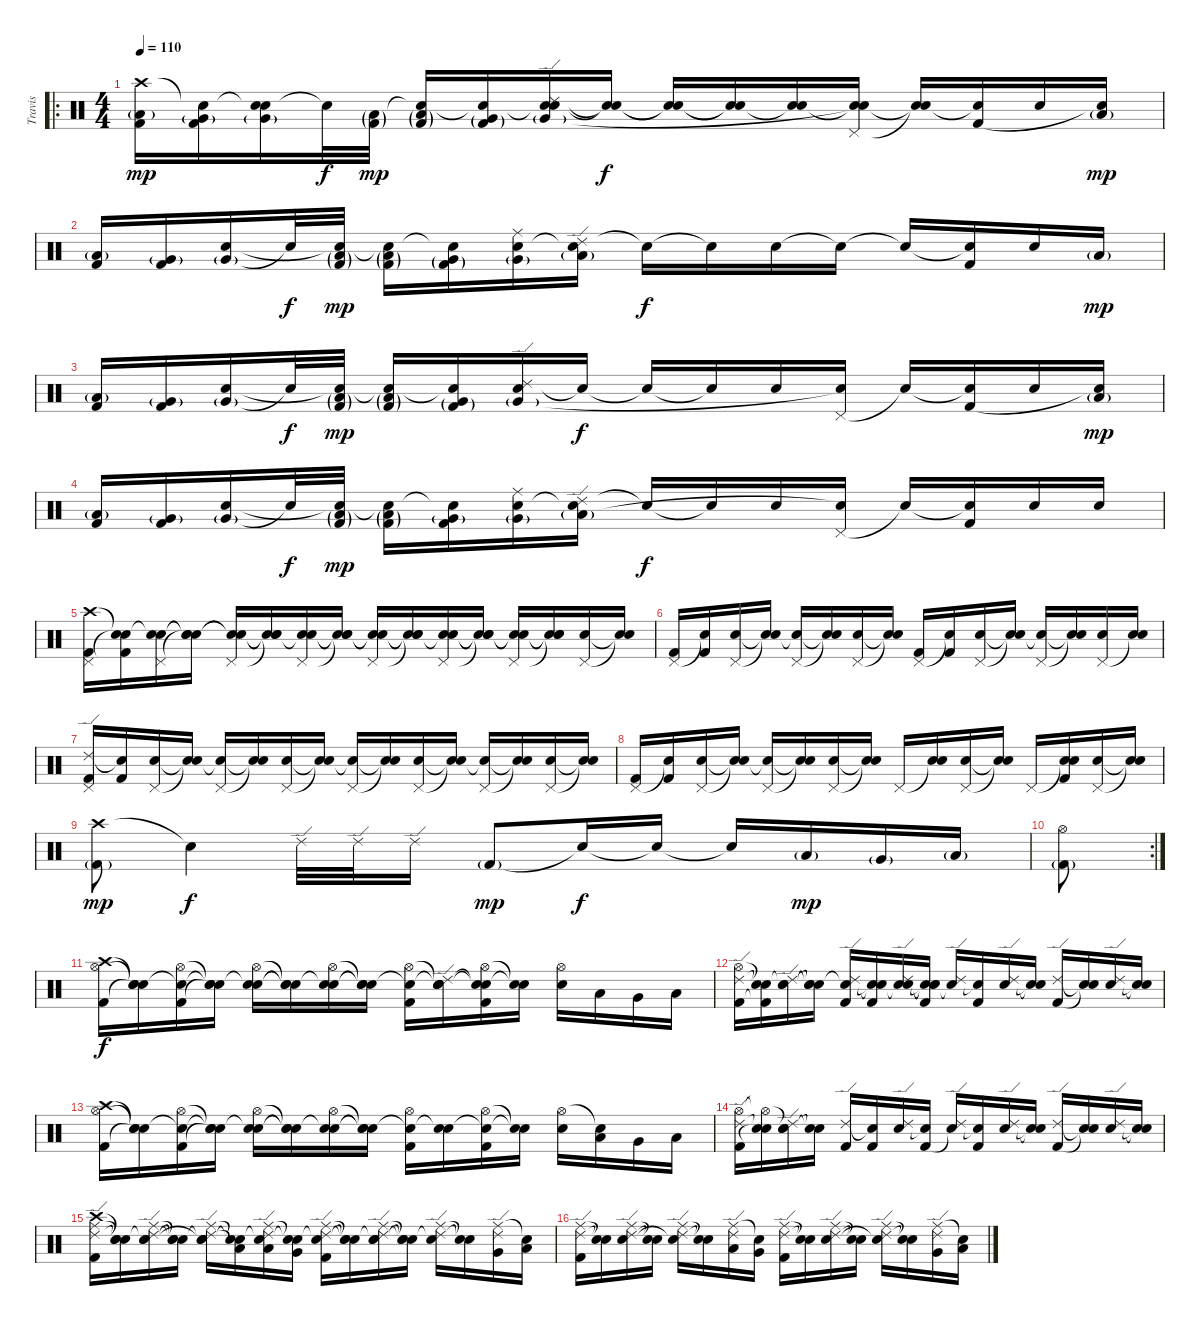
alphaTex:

\track ("Travis" "Travis") {instrument percussion}
\staff {score}
\articulation defaults
\ro
\ts (4 4)
\tempo 110
\clef neutral
\ks c
("Crash high (hit)" "Low Tom (hit)"{g} "Kick (hit) 2").16{dy mp} ("Snare (hit)"{t} "Very Low Tom (hit)"{g} "Kick (hit) 2").16 ("Snare (hit)"{t} "Very Low Tom (hit)"{g} "Electric Snare (hit)").16 "Snare (hit)"{t}.32{dy f} ("Low Tom (hit)"{g} "Kick (hit) 2"{g}).32{dy mp} ("Snare (hit)"{t} "Low Tom (hit)"{g} "Kick (hit) 2"{g}).16 ("Snare (hit)"{t} "Very Low Tom (hit)"{g} "Kick (hit) 2"{g}).16 ("Snare (hit)"{t} "Ride (edge) 2" "Very Low Tom (hit)"{g} "Electric Snare (hit)").16 ("Snare (hit)"{t} "Snare (hit)"{t}).16{dy f} ("Snare (hit)"{t} "Electric Snare (hit)"{t}).16 ("Snare (hit)"{t} "Snare (hit)"{t}).16 ("Snare (hit)"{t} "Electric Snare (hit)").16 ("Snare (hit)"{t} "Pedal Hi-Hat (hit)" "Snare (hit)"{t}).16 ("Snare (hit)"{t} "Snare (hit)"{t}).16 ("Snare (hit)"{t} "Kick (hit) 2").16 "Electric Snare (hit)".16 ("Low Tom (hit)"{g} "Snare (hit)"{t}).16{dy mp} |
("Low Tom (hit)"{g} "Kick (hit) 2").16 ("Very Low Tom (hit)"{g} "Kick (hit) 2").16 ("Very Low Tom (hit)"{g} "Electric Snare (hit)").16 "Snare (hit)"{t}.32{dy f} ("Low Tom (hit)"{g} "Snare (hit)"{t} "Kick (hit) 2"{g}).32{dy mp} ("Low Tom (hit)"{g} "Snare (hit)"{t} "Kick (hit) 2"{g}).16 ("Very Low Tom (hit)"{g} "Snare (hit)"{t} "Kick (hit) 2"{g}).16 ("Ride (middle)" "Very Low Tom (hit)"{g} "Electric Snare (hit)").16 ("Ride (edge) 2" "Low Floor Tom (hit)"{g} "Snare (hit)"{t}).16 "Snare (hit)"{t}.16{dy f} "Snare (hit)"{t}.16 "Electric Snare (hit)".16 "Snare (hit)"{t}.16 "Snare (hit)"{t}.16 ("Snare (hit)"{t} "Kick (hit) 2").16 "Electric Snare (hit)".16 "Low Tom (hit)"{g}.16{dy mp} |
("Low Tom (hit)"{g} "Kick (hit) 2").16 ("Very Low Tom (hit)"{g} "Kick (hit) 2").16 ("Very Low Tom (hit)"{g} "Electric Snare (hit)").16 "Snare (hit)"{t}.32{dy f} ("Low Tom (hit)"{g} "Snare (hit)"{t} "Kick (hit) 2"{g}).32{dy mp} ("Low Tom (hit)"{g} "Snare (hit)"{t} "Kick (hit) 2"{g}).16 ("Very Low Tom (hit)"{g} "Snare (hit)"{t} "Kick (hit) 2"{g}).16 ("Ride (edge) 2" "Very Low Tom (hit)"{g} "Electric Snare (hit)").16 "Snare (hit)"{t}.16{dy f} "Snare (hit)"{t}.16 "Snare (hit)"{t}.16 "Electric Snare (hit)".16 ("Pedal Hi-Hat (hit)" "Snare (hit)"{t}).16 "Snare (hit)"{t}.16 ("Snare (hit)"{t} "Kick (hit) 2").16 "Electric Snare (hit)".16 ("Low Tom (hit)"{g} "Snare (hit)"{t}).16{dy mp} |
("Low Tom (hit)"{g} "Kick (hit) 2").16 ("Very Low Tom (hit)"{g} "Kick (hit) 2").16 ("Very Low Tom (hit)"{g} "Electric Snare (hit)").16 "Snare (hit)"{t}.32{dy f} ("Low Tom (hit)"{g} "Snare (hit)"{t} "Kick (hit) 2"{g}).32{dy mp} ("Low Tom (hit)"{g} "Snare (hit)"{t} "Kick (hit) 2"{g}).16 ("Very Low Tom (hit)"{g} "Snare (hit)"{t} "Kick (hit) 2").16 ("Ride (middle)" "Very Low Tom (hit)"{g} "Electric Snare (hit)").16 ("Ride (edge) 2" "Low Floor Tom (hit)"{g} "Snare (hit)"{t}).16 "Electric Snare (hit)"{t}.16{dy f} "Snare (hit)"{t}.16 "Electric Snare (hit)".16 ("Pedal Hi-Hat (hit)" "Electric Snare (hit)"{t}).16 "Snare (hit)"{t}.16 ("Snare (hit)"{t} "Kick (hit) 2").16 "Electric Snare (hit)".16 "Electric Snare (hit)".16 |
("Crash high (hit)" "Pedal Hi-Hat (hit)" "Kick (hit) 2").16 ("Snare (hit)"{t} "Snare (hit)"{t} "Kick (hit) 2").16 ("Snare (hit)"{t} "Pedal Hi-Hat (hit)" "Electric Snare (hit)").16 ("Snare (hit)"{t} "Snare (hit)"{t} "Snare (hit)"{t}).16 ("Snare (hit)"{t} "Pedal Hi-Hat (hit)" "Snare (hit)"{t}).16 ("Snare (hit)"{t} "Snare (hit)"{t} "Snare (hit)"{t}).16 ("Snare (hit)"{t} "Pedal Hi-Hat (hit)" "Electric Snare (hit)").16 ("Snare (hit)"{t} "Snare (hit)"{t} "Snare (hit)"{t}).16 ("Snare (hit)"{t} "Pedal Hi-Hat (hit)" "Snare (hit)"{t}).16 ("Snare (hit)"{t} "Snare (hit)"{t} "Snare (hit)"{t}).16 ("Snare (hit)"{t} "Pedal Hi-Hat (hit)" "Electric Snare (hit)").16 ("Snare (hit)"{t} "Snare (hit)"{t} "Snare (hit)"{t}).16 ("Snare (hit)"{t} "Pedal Hi-Hat (hit)" "Snare (hit)"{t}).16 ("Snare (hit)"{t} "Snare (hit)"{t} "Snare (hit)"{t}).16 ("Pedal Hi-Hat (hit)" "Electric Snare (hit)").16 ("Snare (hit)"{t} "Snare (hit)"{t}).16 |
("Pedal Hi-Hat (hit)" "Kick (hit) 2").16 ("Snare (hit)"{t} "Kick (hit) 2").16 ("Pedal Hi-Hat (hit)" "Electric Snare (hit)").16 ("Snare (hit)"{t} "Snare (hit)"{t}).16 ("Pedal Hi-Hat (hit)" "Snare (hit)"{t}).16 ("Snare (hit)"{t} "Snare (hit)"{t}).16 ("Pedal Hi-Hat (hit)" "Electric Snare (hit)").16 ("Snare (hit)"{t} "Snare (hit)"{t}).16 ("Pedal Hi-Hat (hit)" "Kick (hit) 2").16 ("Snare (hit)"{t} "Kick (hit) 2").16 ("Pedal Hi-Hat (hit)" "Electric Snare (hit)").16 ("Snare (hit)"{t} "Snare (hit)"{t}).16 ("Pedal Hi-Hat (hit)" "Snare (hit)"{t}).16 ("Snare (hit)"{t} "Snare (hit)"{t}).16 ("Pedal Hi-Hat (hit)" "Electric Snare (hit)").16 ("Snare (hit)"{t} "Electric Snare (hit)").16 |
("Ride (edge) 2" "Pedal Hi-Hat (hit)" "Kick (hit) 2").16 ("Snare (hit)"{t} "Kick (hit) 2").16 ("Pedal Hi-Hat (hit)" "Electric Snare (hit)").16 ("Snare (hit)"{t} "Snare (hit)"{t}).16 ("Pedal Hi-Hat (hit)" "Snare (hit)"{t}).16 ("Snare (hit)"{t} "Snare (hit)"{t}).16 ("Pedal Hi-Hat (hit)" "Electric Snare (hit)").16 ("Snare (hit)"{t} "Snare (hit)"{t}).16 ("Pedal Hi-Hat (hit)" "Snare (hit)"{t}).16 ("Snare (hit)"{t} "Snare (hit)"{t}).16 ("Pedal Hi-Hat (hit)" "Electric Snare (hit)").16 ("Snare (hit)"{t} "Snare (hit)"{t}).16 ("Pedal Hi-Hat (hit)" "Snare (hit)"{t}).16 ("Snare (hit)"{t} "Snare (hit)"{t}).16 ("Pedal Hi-Hat (hit)" "Electric Snare (hit)").16 ("Snare (hit)"{t} "Snare (hit)"{t}).16 |
("Pedal Hi-Hat (hit)" "Kick (hit) 2").16 ("Snare (hit)"{t} "Kick (hit) 2").16 ("Pedal Hi-Hat (hit)" "Electric Snare (hit)").16 ("Snare (hit)"{t} "Snare (hit)"{t}).16 ("Pedal Hi-Hat (hit)" "Snare (hit)"{t}).16 ("Snare (hit)"{t} "Snare (hit)"{t}).16 ("Pedal Hi-Hat (hit)" "Electric Snare (hit)").16 ("Snare (hit)"{t} "Electric Snare (hit)"{t}).16 "Pedal Hi-Hat (hit)".16 ("Snare (hit)"{t} "Electric Snare (hit)").16 ("Pedal Hi-Hat (hit)" "Electric Snare (hit)").16 ("Snare (hit)"{t} "Electric Snare (hit)"{t}).16 "Pedal Hi-Hat (hit)".16 ("Snare (hit)"{t} "Electric Snare (hit)" "Kick (hit) 2").16 ("Pedal Hi-Hat (hit)" "Electric Snare (hit)").16 ("Snare (hit)"{t} "Electric Snare (hit)"{t}).16 |
("Crash high (hit)" "Kick (hit) 2"{g}).8{dy mp} "Snare (hit)"{t}.4{dy f} "Ride (edge) 2".32 "Ride (edge) 2".32 "Ride (edge) 2".16 "Kick (hit) 2"{g}.8{dy mp} "Snare (hit)"{t}.16{dy f} "Snare (hit)"{t}.16 "Snare (hit)"{t}.16 "Low Tom (hit)"{g}.16{dy mp} "Very Low Tom (hit)"{g}.16 "Low Floor Tom (hit)"{g}.16 |
\rc 2
("Hi-Hat (open)" "Kick (hit) 2"{g}).8 |
("Crash high (hit)" "Hi-Hat (open)" "Kick (hit) 2").16{dy f} ("Snare (hit)"{t} "Snare (hit)"{t} "Snare (hit)"{t}).16 ("Snare (hit)"{t} "Hi-Hat (open)" "Kick (hit) 2").16 ("Snare (hit)"{t} "Snare (hit)"{t} "Snare (hit)"{t}).16 ("Snare (hit)"{t} "Hi-Hat (open)" "Electric Snare (hit)").16 ("Snare (hit)"{t} "Snare (hit)"{t} "Snare (hit)"{t}).16 ("Snare (hit)"{t} "Hi-Hat (open)" "Electric Snare (hit)").16 ("Snare (hit)"{t} "Snare (hit)"{t} "Snare (hit)"{t}).16 ("Snare (hit)"{t} "Hi-Hat (open)" "Kick (hit) 2").16 ("Snare (hit)"{t} "Snare (hit)"{t} "Ride (edge) 2" "Electric Snare (hit)").16 ("Snare (hit)"{t} "Hi-Hat (open)" "Snare (hit)"{t} "Kick (hit) 2").16 ("Snare (hit)"{t} "Snare (hit)"{t}).16 ("Hi-Hat (open)" "Electric Snare (hit)").16 "Low Tom (hit)".16 "Very Low Tom (hit)".16 "Low Floor Tom (hit)".16 |
("Hi-Hat (open)" "Ride (edge) 2" "Kick (hit) 2").16 ("Snare (hit)"{t} "Snare (hit)"{t} "Kick (hit) 2"{t}).16 ("Snare (hit)"{t} "Ride (edge) 2" "Electric Snare (hit)").16 ("Snare (hit)"{t} "Snare (hit)"{t} "Snare (hit)"{t}).16 ("Snare (hit)"{t} "Ride (edge) 2" "Kick (hit) 2").16 ("Snare (hit)"{t} "Snare (hit)"{t} "Kick (hit) 2").16 ("Snare (hit)"{t} "Ride (edge) 2" "Electric Snare (hit)").16 ("Snare (hit)"{t} "Snare (hit)"{t} "Snare (hit)"{t} "Kick (hit) 2").16 ("Ride (edge) 2" "Snare (hit)"{t}).16 ("Snare (hit)"{t} "Kick (hit) 2").16 ("Ride (edge) 2" "Electric Snare (hit)").16 ("Snare (hit)"{t} "Snare (hit)"{t}).16 ("Ride (edge) 2" "Kick (hit) 2").16 ("Snare (hit)"{t} "Snare (hit)"{t}).16 ("Ride (edge) 2" "Electric Snare (hit)").16 ("Snare (hit)"{t} "Snare (hit)"{t}).16 |
("Crash high (hit)" "Hi-Hat (open)" "Kick (hit) 2").16 ("Snare (hit)"{t} "Snare (hit)"{t} "Snare (hit)"{t}).16 ("Snare (hit)"{t} "Hi-Hat (open)" "Kick (hit) 2").16 ("Snare (hit)"{t} "Snare (hit)"{t} "Snare (hit)"{t}).16 ("Snare (hit)"{t} "Hi-Hat (open)" "Electric Snare (hit)").16 ("Snare (hit)"{t} "Snare (hit)"{t} "Snare (hit)"{t}).16 ("Snare (hit)"{t} "Hi-Hat (open)" "Electric Snare (hit)").16 ("Snare (hit)"{t} "Snare (hit)"{t} "Snare (hit)"{t}).16 ("Snare (hit)"{t} "Hi-Hat (open)" "Kick (hit) 2").16 ("Snare (hit)"{t} "Electric Snare (hit)").16 ("Snare (hit)"{t} "Hi-Hat (open)" "Kick (hit) 2").16 ("Snare (hit)"{t} "Snare (hit)"{t}).16 ("Hi-Hat (open)" "Electric Snare (hit)").16 ("Snare (hit)"{t} "Low Tom (hit)").16 "Very Low Tom (hit)".16 "Low Floor Tom (hit)".16 |
("Hi-Hat (open)" "Ride (edge) 2" "Kick (hit) 2").16 ("Hi-Hat (open)"{t} "Snare (hit)"{t} "Snare (hit)"{t}).16 ("Snare (hit)"{t} "Ride (edge) 2" "Electric Snare (hit)").16 ("Snare (hit)"{t} "Snare (hit)"{t}).16 ("Ride (edge) 2" "Kick (hit) 2").16 ("Snare (hit)"{t} "Kick (hit) 2").16 ("Ride (edge) 2" "Electric Snare (hit)").16 ("Snare (hit)"{t} "Kick (hit) 2").16 ("Ride (edge) 2" "Snare (hit)"{t}).16 ("Snare (hit)"{t} "Kick (hit) 2").16 ("Ride (edge) 2" "Electric Snare (hit)").16 ("Snare (hit)"{t} "Snare (hit)"{t}).16 ("Ride (edge) 2" "Kick (hit) 2").16 ("Snare (hit)"{t} "Snare (hit)"{t}).16 ("Ride (edge) 2" "Electric Snare (hit)").16 ("Snare (hit)"{t} "Snare (hit)"{t}).16 |
("Crash high (hit)" "Ride (middle)" "Ride (edge) 2" "Kick (hit) 2").16 ("Snare (hit)"{t} "Snare (hit)"{t} "Snare (hit)"{t}).16 ("Snare (hit)"{t} "Ride (middle)" "Ride (edge) 2" "Electric Snare (hit)").16 ("Snare (hit)"{t} "Snare (hit)"{t} "Snare (hit)"{t}).16 ("Snare (hit)"{t} "Ride (middle)" "Ride (edge) 2" "Snare (hit)"{t}).16 ("Snare (hit)"{t} "Snare (hit)"{t} "Low Tom (hit)"{t}).16 ("Snare (hit)"{t} "Ride (middle)" "Ride (edge) 2" "Low Tom (hit)").16 ("Snare (hit)"{t} "Snare (hit)"{t} "Very Low Tom (hit)").16 ("Snare (hit)"{t} "Ride (middle)" "Ride (edge) 2" "Kick (hit) 2").16 ("Snare (hit)"{t} "Snare (hit)"{t} "Snare (hit)"{t}).16 ("Snare (hit)"{t} "Ride (middle)" "Ride (edge) 2" "Electric Snare (hit)").16 ("Snare (hit)"{t} "Snare (hit)"{t} "Snare (hit)"{t}).16 ("Ride (middle)" "Ride (edge) 2" "Snare (hit)"{t}).16 ("Snare (hit)"{t} "Snare (hit)"{t}).16 ("Ride (middle)" "Ride (edge) 2" "Very Low Tom (hit)").16 ("Snare (hit)"{t} "Low Floor Tom (hit)").16 |
("Ride (middle)" "Ride (edge) 2" "Kick (hit) 2").16 ("Snare (hit)"{t} "Snare (hit)"{t}).16 ("Ride (middle)" "Ride (edge) 2" "Electric Snare (hit)").16 ("Snare (hit)"{t} "Snare (hit)"{t}).16 ("Ride (middle)" "Ride (edge) 2" "Snare (hit)"{t}).16 ("Snare (hit)"{t} "Snare (hit)"{t}).16 ("Ride (middle)" "Ride (edge) 2" "Low Tom (hit)").16 ("Snare (hit)"{t} "Very Low Tom (hit)").16 ("Ride (middle)" "Ride (edge) 2" "Kick (hit) 2").16 ("Snare (hit)"{t} "Snare (hit)"{t}).16 ("Ride (middle)" "Ride (edge) 2" "Electric Snare (hit)").16 ("Snare (hit)"{t} "Snare (hit)"{t}).16 ("Ride (middle)" "Ride (edge) 2" "Snare (hit)"{t}).16 ("Snare (hit)"{t} "Snare (hit)"{t}).16 ("Ride (middle)" "Ride (edge) 2" "Very Low Tom (hit)").16 ("Snare (hit)"{t} "Low Floor Tom (hit)").16
